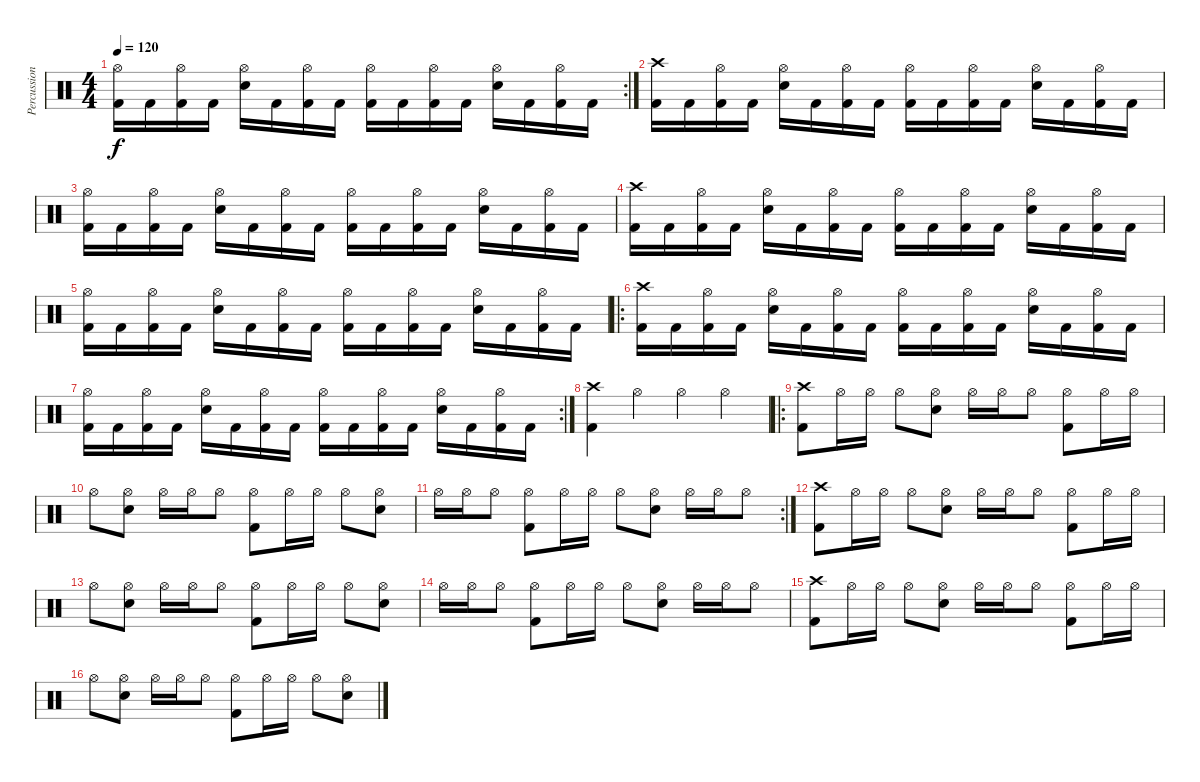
\track ("Percussion" "Percussion") {instrument percussion}
\staff {score}
\articulation defaults
\rc 2
\ts (4 4)
\tempo 120
\clef neutral
\ks c
("Hi-Hat (open)" "Kick (hit) 2").16{dy f} "Kick (hit) 2".16 ("Hi-Hat (open)" "Kick (hit) 2").16 "Kick (hit) 2".16 ("Hi-Hat (open)" "Snare (hit) 2").16 "Kick (hit) 2".16 ("Hi-Hat (open)" "Kick (hit) 2").16 "Kick (hit) 2".16 ("Hi-Hat (open)" "Kick (hit) 2").16 "Kick (hit) 2".16 ("Hi-Hat (open)" "Kick (hit) 2").16 "Kick (hit) 2".16 ("Hi-Hat (open)" "Snare (hit) 2").16 "Kick (hit) 2".16 ("Hi-Hat (open)" "Kick (hit) 2").16 "Kick (hit) 2".16 |
("Crash high (hit)" "Kick (hit) 2").16 "Kick (hit) 2".16 ("Hi-Hat (open)" "Kick (hit) 2").16 "Kick (hit) 2".16 ("Hi-Hat (open)" "Snare (hit) 2").16 "Kick (hit) 2".16 ("Hi-Hat (open)" "Kick (hit) 2").16 "Kick (hit) 2".16 ("Hi-Hat (open)" "Kick (hit) 2").16 "Kick (hit) 2".16 ("Hi-Hat (open)" "Kick (hit) 2").16 "Kick (hit) 2".16 ("Hi-Hat (open)" "Snare (hit) 2").16 "Kick (hit) 2".16 ("Hi-Hat (open)" "Kick (hit) 2").16 "Kick (hit) 2".16 |
("Hi-Hat (open)" "Kick (hit) 2").16 "Kick (hit) 2".16 ("Hi-Hat (open)" "Kick (hit) 2").16 "Kick (hit) 2".16 ("Hi-Hat (open)" "Snare (hit) 2").16 "Kick (hit) 2".16 ("Hi-Hat (open)" "Kick (hit) 2").16 "Kick (hit) 2".16 ("Hi-Hat (open)" "Kick (hit) 2").16 "Kick (hit) 2".16 ("Hi-Hat (open)" "Kick (hit) 2").16 "Kick (hit) 2".16 ("Hi-Hat (open)" "Snare (hit) 2").16 "Kick (hit) 2".16 ("Hi-Hat (open)" "Kick (hit) 2").16 "Kick (hit) 2".16 |
("Crash high (hit)" "Kick (hit) 2").16 "Kick (hit) 2".16 ("Hi-Hat (open)" "Kick (hit) 2").16 "Kick (hit) 2".16 ("Hi-Hat (open)" "Snare (hit) 2").16 "Kick (hit) 2".16 ("Hi-Hat (open)" "Kick (hit) 2").16 "Kick (hit) 2".16 ("Hi-Hat (open)" "Kick (hit) 2").16 "Kick (hit) 2".16 ("Hi-Hat (open)" "Kick (hit) 2").16 "Kick (hit) 2".16 ("Hi-Hat (open)" "Snare (hit) 2").16 "Kick (hit) 2".16 ("Hi-Hat (open)" "Kick (hit) 2").16 "Kick (hit) 2".16 |
("Hi-Hat (open)" "Kick (hit) 2").16 "Kick (hit) 2".16 ("Hi-Hat (open)" "Kick (hit) 2").16 "Kick (hit) 2".16 ("Hi-Hat (open)" "Snare (hit) 2").16 "Kick (hit) 2".16 ("Hi-Hat (open)" "Kick (hit) 2").16 "Kick (hit) 2".16 ("Hi-Hat (open)" "Kick (hit) 2").16 "Kick (hit) 2".16 ("Hi-Hat (open)" "Kick (hit) 2").16 "Kick (hit) 2".16 ("Hi-Hat (open)" "Snare (hit) 2").16 "Kick (hit) 2".16 ("Hi-Hat (open)" "Kick (hit) 2").16 "Kick (hit) 2".16 |
\ro
("Crash high (hit)" "Kick (hit) 2").16 "Kick (hit) 2".16 ("Hi-Hat (open)" "Kick (hit) 2").16 "Kick (hit) 2".16 ("Hi-Hat (open)" "Snare (hit) 2").16 "Kick (hit) 2".16 ("Hi-Hat (open)" "Kick (hit) 2").16 "Kick (hit) 2".16 ("Hi-Hat (open)" "Kick (hit) 2").16 "Kick (hit) 2".16 ("Hi-Hat (open)" "Kick (hit) 2").16 "Kick (hit) 2".16 ("Hi-Hat (open)" "Snare (hit) 2").16 "Kick (hit) 2".16 ("Hi-Hat (open)" "Kick (hit) 2").16 "Kick (hit) 2".16 |
\rc 2
("Hi-Hat (open)" "Kick (hit) 2").16 "Kick (hit) 2".16 ("Hi-Hat (open)" "Kick (hit) 2").16 "Kick (hit) 2".16 ("Hi-Hat (open)" "Snare (hit) 2").16 "Kick (hit) 2".16 ("Hi-Hat (open)" "Kick (hit) 2").16 "Kick (hit) 2".16 ("Hi-Hat (open)" "Kick (hit) 2").16 "Kick (hit) 2".16 ("Hi-Hat (open)" "Kick (hit) 2").16 "Kick (hit) 2".16 ("Hi-Hat (open)" "Snare (hit) 2").16 "Kick (hit) 2".16 ("Hi-Hat (open)" "Kick (hit) 2").16 "Kick (hit) 2".16 |
("Crash high (hit)" "Kick (hit) 2").4 "Hi-Hat (open)".4 "Hi-Hat (open)".4 "Hi-Hat (open)".4 |
\ro
("Crash high (hit)" "Kick (hit) 2").8 "Hi-Hat (open)".16 "Hi-Hat (open)".16 "Hi-Hat (open)".8 ("Hi-Hat (open)" "Snare (hit) 2").8 "Hi-Hat (open)".16 "Hi-Hat (open)".16 "Hi-Hat (open)".8 ("Hi-Hat (open)" "Kick (hit) 2").8 "Hi-Hat (open)".16 "Hi-Hat (open)".16 |
"Hi-Hat (open)".8 ("Hi-Hat (open)" "Snare (hit) 2").8 "Hi-Hat (open)".16 "Hi-Hat (open)".16 "Hi-Hat (open)".8 ("Hi-Hat (open)" "Kick (hit) 2").8 "Hi-Hat (open)".16 "Hi-Hat (open)".16 "Hi-Hat (open)".8 ("Hi-Hat (open)" "Snare (hit) 2").8 |
\rc 2 "Hi-Hat (open)".16 "Hi-Hat (open)".16 "Hi-Hat (open)".8
("Hi-Hat (open)" "Kick (hit) 2").8 "Hi-Hat (open)".16 "Hi-Hat (open)".16 "Hi-Hat (open)".8 ("Hi-Hat (open)" "Snare (hit) 2").8 "Hi-Hat (open)".16 "Hi-Hat (open)".16 "Hi-Hat (open)".8 |
("Crash high (hit)" "Kick (hit) 2").8 "Hi-Hat (open)".16 "Hi-Hat (open)".16 "Hi-Hat (open)".8 ("Hi-Hat (open)" "Snare (hit) 2").8 "Hi-Hat (open)".16 "Hi-Hat (open)".16 "Hi-Hat (open)".8 ("Hi-Hat (open)" "Kick (hit) 2").8 "Hi-Hat (open)".16 "Hi-Hat (open)".16 |
"Hi-Hat (open)".8 ("Hi-Hat (open)" "Snare (hit) 2").8 "Hi-Hat (open)".16 "Hi-Hat (open)".16 "Hi-Hat (open)".8 ("Hi-Hat (open)" "Kick (hit) 2").8 "Hi-Hat (open)".16 "Hi-Hat (open)".16 "Hi-Hat (open)".8 ("Hi-Hat (open)" "Snare (hit) 2").8 |
"Hi-Hat (open)".16 "Hi-Hat (open)".16 "Hi-Hat (open)".8 ("Hi-Hat (open)" "Kick (hit) 2").8 "Hi-Hat (open)".16 "Hi-Hat (open)".16 "Hi-Hat (open)".8 ("Hi-Hat (open)" "Snare (hit) 2").8 "Hi-Hat (open)".16 "Hi-Hat (open)".16 "Hi-Hat (open)".8 |
("Crash high (hit)" "Kick (hit) 2").8 "Hi-Hat (open)".16 "Hi-Hat (open)".16 "Hi-Hat (open)".8 ("Hi-Hat (open)" "Snare (hit) 2").8 "Hi-Hat (open)".16 "Hi-Hat (open)".16 "Hi-Hat (open)".8 ("Hi-Hat (open)" "Kick (hit) 2").8 "Hi-Hat (open)".16 "Hi-Hat (open)".16 |
"Hi-Hat (open)".8 ("Hi-Hat (open)" "Snare (hit) 2").8 "Hi-Hat (open)".16 "Hi-Hat (open)".16 "Hi-Hat (open)".8 ("Hi-Hat (open)" "Kick (hit) 2").8 "Hi-Hat (open)".16 "Hi-Hat (open)".16 "Hi-Hat (open)".8 ("Hi-Hat (open)" "Snare (hit) 2").8
